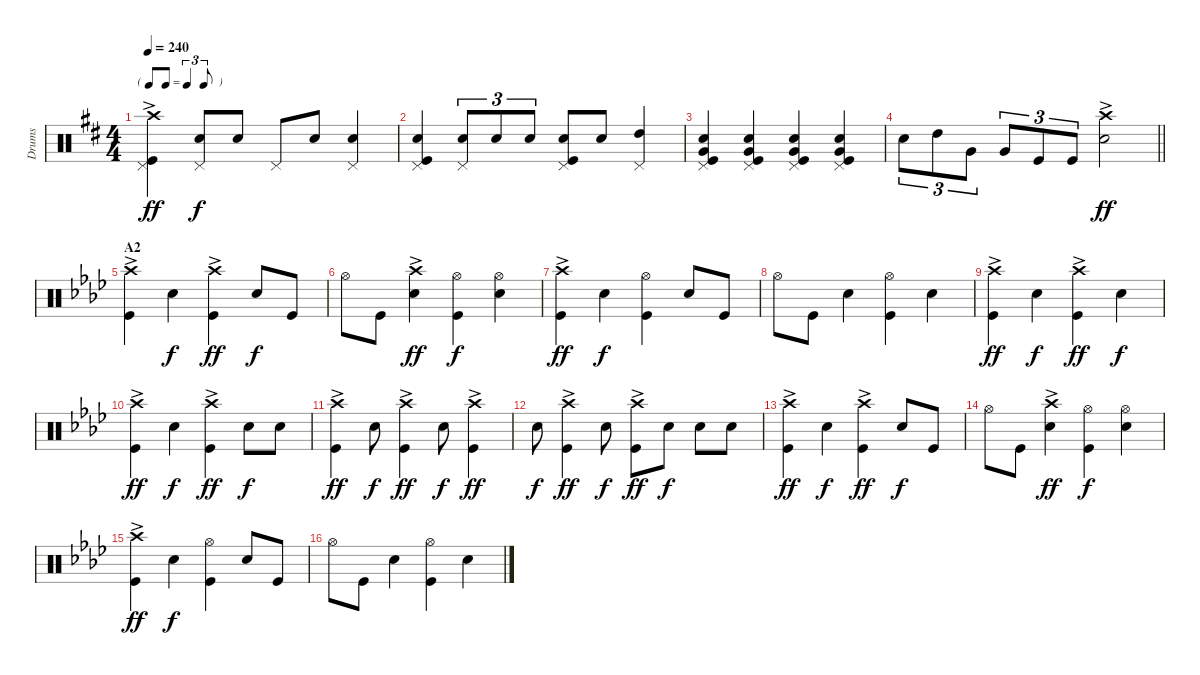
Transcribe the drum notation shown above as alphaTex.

\track ("Drums" "Drums") {instrument percussion}
\staff {score}
\articulation defaults
\ts (4 4)
\tf triplet8th
\tempo 240
\clef neutral
\ks d
("Crash high (hit)"{ac} "Kick (hit)" "Pedal Hi-Hat (hit)").4{dy ff} ("Pedal Hi-Hat (hit)" "Snare (hit) 2").8{dy f} "Snare (hit) 2".8 "Pedal Hi-Hat (hit)".8 "Snare (hit) 2".8 ("Snare (hit) 2" "Pedal Hi-Hat (hit)").4 |
("Snare (hit) 2" "Kick (hit)" "Pedal Hi-Hat (hit)").4 ("Snare (hit) 2" "Pedal Hi-Hat (hit)").8{tu (3 2)} "Snare (hit) 2".8{tu (3 2)} "Snare (hit) 2".8{tu (3 2)} ("Snare (hit) 2" "Kick (hit)" "Pedal Hi-Hat (hit)").8 "Snare (hit) 2".8 ("High Tom (hit)" "Pedal Hi-Hat (hit)").4 |
("Pedal Hi-Hat (hit)" "Snare (hit) 2" "Very Low Tom (hit)" "Kick (hit)").4 ("Snare (hit) 2" "Very Low Tom (hit)" "Kick (hit)" "Pedal Hi-Hat (hit)").4 ("Snare (hit) 2" "Kick (hit)" "Pedal Hi-Hat (hit)" "Very Low Tom (hit)").4 ("Snare (hit) 2" "Kick (hit)" "Pedal Hi-Hat (hit)" "Very Low Tom (hit)").4 |
\barLineRight lightlight "Snare (hit) 2".8{tu (3 2)} "High Tom (hit)".8{tu (3 2)} "Very Low Tom (hit)".8{tu (3 2)} "Very Low Tom (hit)".8{tu (3 2)} "Kick (hit)".8{tu (3 2)} "Kick (hit)".8{tu (3 2)}
("Snare (hit) 2" "Crash high (hit)"{ac}).2{dy ff} |
\section ("" "A2")
\ks ab
("Crash high (hit)"{ac} "Kick (hit)").4 "Snare (hit) 2".4{dy f} ("Crash high (hit)"{ac} "Kick (hit)").4{dy ff} "Snare (hit) 2".8{dy f} "Kick (hit)".8 |
"Hi-Hat (open)".8 "Kick (hit)".8 ("Crash high (hit)"{ac} "Snare (hit) 2").4{dy ff} ("Kick (hit)" "Hi-Hat (open)").4{dy f} ("Hi-Hat (open)" "Snare (hit) 2").4 |
("Crash high (hit)"{ac} "Kick (hit)").4{dy ff} "Snare (hit) 2".4{dy f} ("Hi-Hat (open)" "Kick (hit)").4 "Snare (hit) 2".8 "Kick (hit)".8 |
"Hi-Hat (open)".8 "Kick (hit)".8 "Snare (hit) 2".4 ("Hi-Hat (open)" "Kick (hit)").4 "Snare (hit) 2".4 |
("Crash high (hit)"{ac} "Kick (hit)").4{dy ff} "Snare (hit) 2".4{dy f} ("Crash high (hit)"{ac} "Kick (hit)").4{dy ff} "Snare (hit) 2".4{dy f} |
("Crash high (hit)"{ac} "Kick (hit)").4{dy ff} "Snare (hit) 2".4{dy f} ("Crash high (hit)"{ac} "Kick (hit)").4{dy ff} "Snare (hit) 2".8{dy f} "Snare (hit) 2".8 |
("Crash high (hit)"{ac} "Kick (hit)").4{dy ff} "Snare (hit) 2".8{dy f} ("Kick (hit)" "Crash high (hit)"{ac}).4{dy ff} "Snare (hit) 2".8{dy f} ("Kick (hit)" "Crash high (hit)"{ac}).4{dy ff} |
"Snare (hit) 2".8{dy f} ("Kick (hit)" "Crash high (hit)"{ac}).4{dy ff} "Snare (hit) 2".8{dy f} ("Kick (hit)" "Crash high (hit)"{ac}).8{dy ff} "Snare (hit) 2".8{dy f} "Snare (hit) 2".8 "Snare (hit) 2".8 |
("Crash high (hit)"{ac} "Kick (hit)").4{dy ff} "Snare (hit) 2".4{dy f} ("Crash high (hit)"{ac} "Kick (hit)").4{dy ff} "Snare (hit) 2".8{dy f} "Kick (hit)".8 |
"Hi-Hat (open)".8 "Kick (hit)".8 ("Crash high (hit)"{ac} "Snare (hit) 2").4{dy ff} ("Kick (hit)" "Hi-Hat (open)").4{dy f} ("Hi-Hat (open)" "Snare (hit) 2").4 |
("Crash high (hit)"{ac} "Kick (hit)").4{dy ff} "Snare (hit) 2".4{dy f} ("Hi-Hat (open)" "Kick (hit)").4 "Snare (hit) 2".8 "Kick (hit)".8 |
"Hi-Hat (open)".8 "Kick (hit)".8 "Snare (hit) 2".4 ("Hi-Hat (open)" "Kick (hit)").4 "Snare (hit) 2".4
